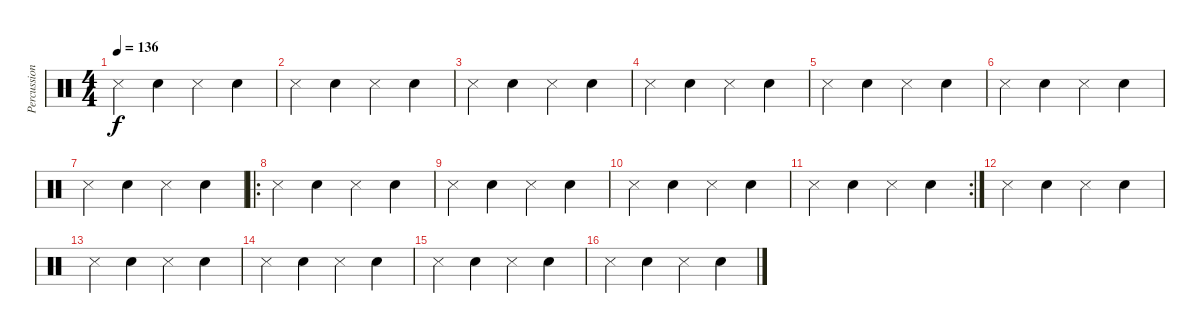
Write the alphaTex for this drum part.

\track ("Percussions" "Percussion") {instrument percussion}
\staff {score}
\articulation defaults
\ts (4 4)
\tempo 136
\clef neutral
\ks c "Snare (side stick) 3".4{dy f} "Electric Snare (hit)".4 "Snare (side stick) 3".4 "Electric Snare (hit)".4
|
"Snare (side stick) 3".4 "Electric Snare (hit)".4 "Snare (side stick) 3".4 "Electric Snare (hit)".4 |
"Snare (side stick) 3".4 "Electric Snare (hit)".4 "Snare (side stick) 3".4 "Electric Snare (hit)".4 |
"Snare (side stick) 3".4 "Electric Snare (hit)".4 "Snare (side stick) 3".4 "Electric Snare (hit)".4 |
"Snare (side stick) 3".4 "Electric Snare (hit)".4 "Snare (side stick) 3".4 "Electric Snare (hit)".4 |
"Snare (side stick) 3".4 "Electric Snare (hit)".4 "Snare (side stick) 3".4 "Electric Snare (hit)".4 |
"Snare (side stick) 3".4 "Electric Snare (hit)".4 "Snare (side stick) 3".4 "Electric Snare (hit)".4 |
\ro "Snare (side stick) 3".4 "Electric Snare (hit)".4 "Snare (side stick) 3".4 "Electric Snare (hit)".4
|
"Snare (side stick) 3".4 "Electric Snare (hit)".4 "Snare (side stick) 3".4 "Electric Snare (hit)".4 |
"Snare (side stick) 3".4 "Electric Snare (hit)".4 "Snare (side stick) 3".4 "Electric Snare (hit)".4 |
\rc 2 "Snare (side stick) 3".4 "Electric Snare (hit)".4 "Snare (side stick) 3".4 "Electric Snare (hit)".4
|
"Snare (side stick) 3".4 "Electric Snare (hit)".4 "Snare (side stick) 3".4 "Electric Snare (hit)".4 |
"Snare (side stick) 3".4 "Electric Snare (hit)".4 "Snare (side stick) 3".4 "Electric Snare (hit)".4 |
"Snare (side stick) 3".4 "Electric Snare (hit)".4 "Snare (side stick) 3".4 "Electric Snare (hit)".4 |
"Snare (side stick) 3".4 "Electric Snare (hit)".4 "Snare (side stick) 3".4 "Electric Snare (hit)".4 |
"Snare (side stick) 3".4 "Electric Snare (hit)".4 "Snare (side stick) 3".4 "Electric Snare (hit)".4
